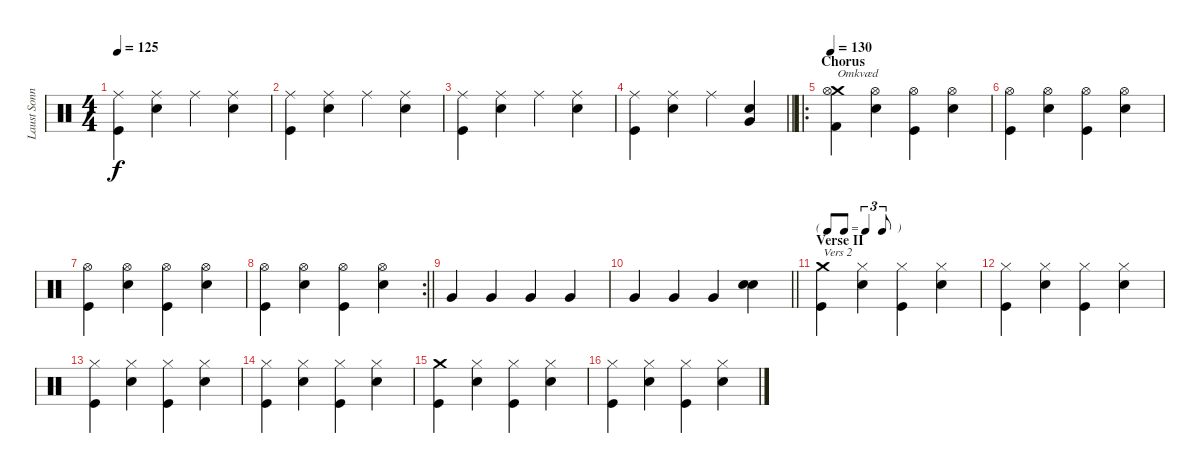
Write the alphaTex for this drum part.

\track ("Laust Sonne (Trommer)" "Laust Sonn") {instrument percussion}
\staff {score}
\articulation defaults
\ts (4 4)
\tempo 125
\clef neutral
\ks c
("Ride (middle)" "Kick (hit)").4{dy f} ("Ride (middle)" "Snare (hit) 2").4 "Ride (middle)".4 ("Ride (middle)" "Snare (hit) 2").4 |
("Ride (middle)" "Kick (hit)").4 ("Ride (middle)" "Snare (hit) 2").4 "Ride (middle)".4 ("Ride (middle)" "Snare (hit) 2").4 |
("Ride (middle)" "Kick (hit)").4 ("Ride (middle)" "Snare (hit) 2").4 "Ride (middle)".4 ("Ride (middle)" "Snare (hit) 2").4 |
\barLineRight lightlight
("Ride (middle)" "Kick (hit)").4 ("Ride (middle)" "Snare (hit) 2").4 "Ride (middle)".4 ("Very Low Tom (hit)" "Snare (hit) 2").4 |
\ro
\section ("" "Chorus")
\tempo 130
("Crash medium (hit)" "Hi-Hat (open)" "Kick (hit) 2").4{txt "Omkvæd"} ("Hi-Hat (open)" "Snare (hit) 2").4 ("Hi-Hat (open)" "Kick (hit)").4 ("Hi-Hat (open)" "Snare (hit) 2").4 |
("Hi-Hat (open)" "Kick (hit)").4 ("Hi-Hat (open)" "Snare (hit) 2").4 ("Hi-Hat (open)" "Kick (hit)").4 ("Hi-Hat (open)" "Snare (hit) 2").4 |
("Hi-Hat (open)" "Kick (hit)").4 ("Hi-Hat (open)" "Snare (hit) 2").4 ("Hi-Hat (open)" "Kick (hit)").4 ("Hi-Hat (open)" "Snare (hit) 2").4 |
\rc 2
\barLineRight lightlight
("Hi-Hat (open)" "Kick (hit)").4 ("Hi-Hat (open)" "Snare (hit) 2").4 ("Hi-Hat (open)" "Kick (hit)").4 ("Hi-Hat (open)" "Snare (hit) 2").4 |
"Very Low Tom (hit)".4 "Very Low Tom (hit)".4 "Very Low Tom (hit)".4 "Very Low Tom (hit)".4 |
\barLineRight lightlight "Very Low Tom (hit)".4 "Very Low Tom (hit)".4 "Very Low Tom (hit)".4
("Snare (hit) 2" "Snare (hit) 2").4 |
\tf triplet8th
\section ("" "Verse II")
("Crash medium (hit)" "Kick (hit)").4{txt "Vers 2"} ("Hi-Hat (closed)" "Snare (hit) 2").4 ("Hi-Hat (closed)" "Kick (hit)").4 ("Hi-Hat (closed)" "Snare (hit) 2").4 |
("Hi-Hat (closed)" "Kick (hit)").4 ("Hi-Hat (closed)" "Snare (hit) 2").4 ("Hi-Hat (closed)" "Kick (hit)").4 ("Hi-Hat (closed)" "Snare (hit) 2").4 |
("Hi-Hat (closed)" "Kick (hit)").4 ("Hi-Hat (closed)" "Snare (hit) 2").4 ("Hi-Hat (closed)" "Kick (hit)").4 ("Hi-Hat (closed)" "Snare (hit) 2").4 |
("Hi-Hat (closed)" "Kick (hit)").4 ("Hi-Hat (closed)" "Snare (hit) 2").4 ("Hi-Hat (closed)" "Kick (hit)").4 ("Hi-Hat (closed)" "Snare (hit) 2").4 |
("Crash medium (hit)" "Kick (hit)").4 ("Hi-Hat (closed)" "Snare (hit) 2").4 ("Hi-Hat (closed)" "Kick (hit)").4 ("Hi-Hat (closed)" "Snare (hit) 2").4 |
("Hi-Hat (closed)" "Kick (hit)").4 ("Hi-Hat (closed)" "Snare (hit) 2").4 ("Hi-Hat (closed)" "Kick (hit)").4 ("Hi-Hat (closed)" "Snare (hit) 2").4
